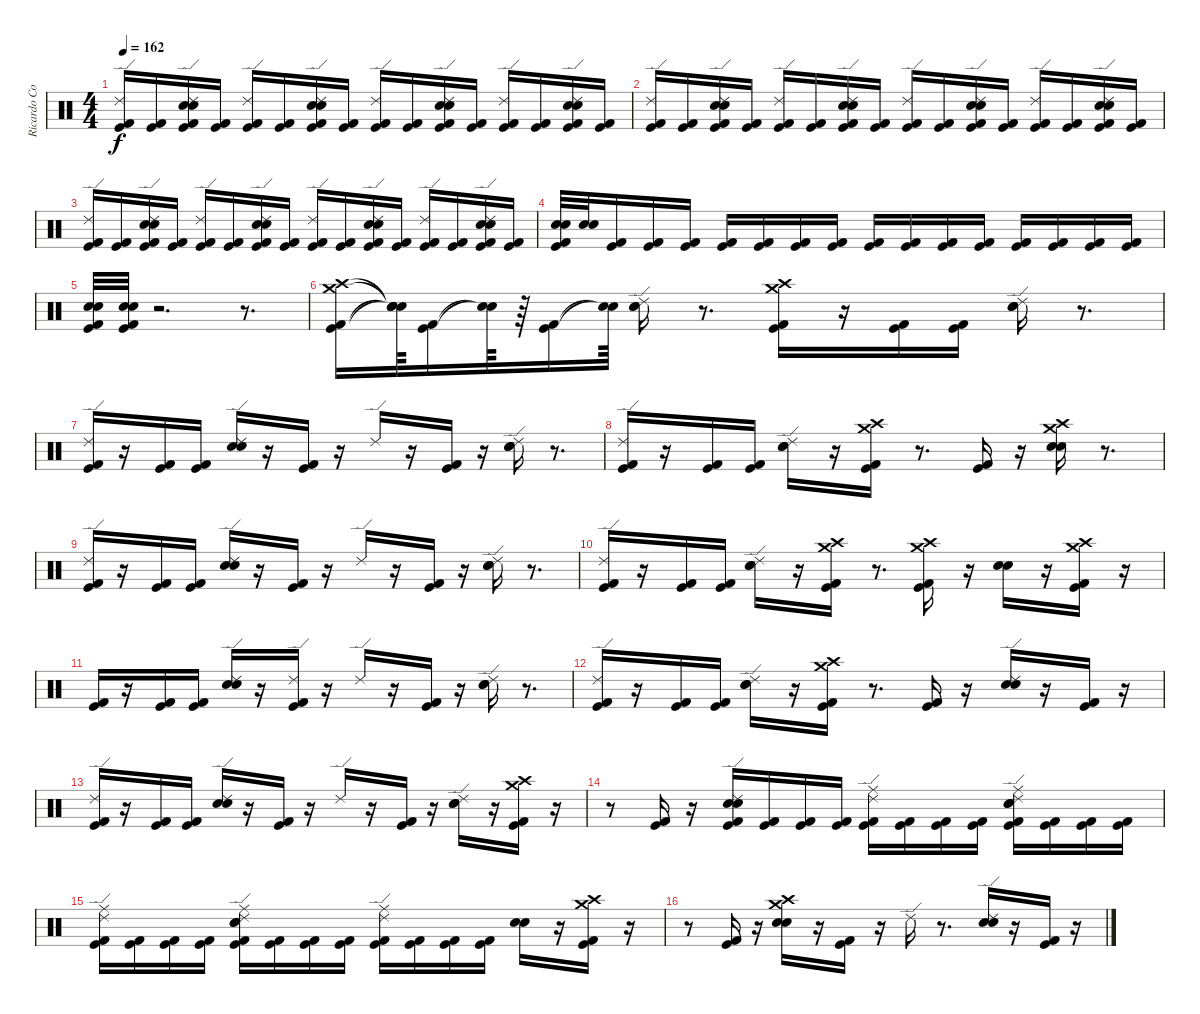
\track ("Ricardo Confessori" "Ricardo Co") {instrument percussion}
\staff {score}
\articulation defaults
\ts (4 4)
\tempo 162
\clef neutral
\ks c
("Ride (edge) 2" "Kick (hit) 2" "Kick (hit)").16{dy f} ("Kick (hit) 2" "Kick (hit)").16 ("Ride (edge) 2" "Electric Snare (hit)" "Snare (hit) 2" "Kick (hit) 2" "Kick (hit)").16 ("Kick (hit) 2" "Kick (hit)").16 ("Ride (edge) 2" "Kick (hit) 2" "Kick (hit)").16 ("Kick (hit) 2" "Kick (hit)").16 ("Ride (edge) 2" "Electric Snare (hit)" "Snare (hit) 2" "Kick (hit) 2" "Kick (hit)").16 ("Kick (hit) 2" "Kick (hit)").16 ("Ride (edge) 2" "Kick (hit) 2" "Kick (hit)").16 ("Kick (hit) 2" "Kick (hit)").16 ("Ride (edge) 2" "Electric Snare (hit)" "Snare (hit) 2" "Kick (hit) 2" "Kick (hit)").16 ("Kick (hit) 2" "Kick (hit)").16 ("Ride (edge) 2" "Kick (hit) 2" "Kick (hit)").16 ("Kick (hit) 2" "Kick (hit)").16 ("Ride (edge) 2" "Electric Snare (hit)" "Snare (hit) 2" "Kick (hit) 2" "Kick (hit)").16 ("Kick (hit) 2" "Kick (hit)").16 |
("Ride (edge) 2" "Kick (hit) 2" "Kick (hit)").16 ("Kick (hit) 2" "Kick (hit)").16 ("Ride (edge) 2" "Electric Snare (hit)" "Snare (hit) 2" "Kick (hit) 2" "Kick (hit)").16 ("Kick (hit) 2" "Kick (hit)").16 ("Ride (edge) 2" "Kick (hit) 2" "Kick (hit)").16 ("Kick (hit) 2" "Kick (hit)").16 ("Ride (edge) 2" "Electric Snare (hit)" "Snare (hit) 2" "Kick (hit) 2" "Kick (hit)").16 ("Kick (hit) 2" "Kick (hit)").16 ("Ride (edge) 2" "Kick (hit) 2" "Kick (hit)").16 ("Kick (hit) 2" "Kick (hit)").16 ("Ride (edge) 2" "Electric Snare (hit)" "Snare (hit) 2" "Kick (hit) 2" "Kick (hit)").16 ("Kick (hit) 2" "Kick (hit)").16 ("Ride (edge) 2" "Kick (hit) 2" "Kick (hit)").16 ("Kick (hit) 2" "Kick (hit)").16 ("Ride (edge) 2" "Electric Snare (hit)" "Snare (hit) 2" "Kick (hit) 2" "Kick (hit)").16 ("Kick (hit) 2" "Kick (hit)").16 |
("Ride (edge) 2" "Kick (hit) 2" "Kick (hit)").16 ("Kick (hit) 2" "Kick (hit)").16 ("Ride (edge) 2" "Electric Snare (hit)" "Snare (hit) 2" "Kick (hit) 2" "Kick (hit)").16 ("Kick (hit) 2" "Kick (hit)").16 ("Ride (edge) 2" "Kick (hit) 2" "Kick (hit)").16 ("Kick (hit) 2" "Kick (hit)").16 ("Ride (edge) 2" "Electric Snare (hit)" "Snare (hit) 2" "Kick (hit) 2" "Kick (hit)").16 ("Kick (hit) 2" "Kick (hit)").16 ("Ride (edge) 2" "Kick (hit) 2" "Kick (hit)").16 ("Kick (hit) 2" "Kick (hit)").16 ("Ride (edge) 2" "Electric Snare (hit)" "Snare (hit) 2" "Kick (hit) 2" "Kick (hit)").16 ("Kick (hit) 2" "Kick (hit)").16 ("Ride (edge) 2" "Kick (hit) 2" "Kick (hit)").16 ("Kick (hit) 2" "Kick (hit)").16 ("Ride (edge) 2" "Electric Snare (hit)" "Snare (hit) 2" "Kick (hit) 2" "Kick (hit)").16 ("Kick (hit) 2" "Kick (hit)").16 |
("Electric Snare (hit)" "Snare (hit) 2" "Kick (hit) 2" "Kick (hit)").32 ("Electric Snare (hit)" "Snare (hit) 2").32 ("Kick (hit) 2" "Kick (hit)").16 ("Kick (hit) 2" "Kick (hit)").16 ("Kick (hit) 2" "Kick (hit)").16 ("Kick (hit) 2" "Kick (hit)").16 ("Kick (hit) 2" "Kick (hit)").16 ("Kick (hit) 2" "Kick (hit)").16 ("Kick (hit) 2" "Kick (hit)").16 ("Kick (hit) 2" "Kick (hit)").16 ("Kick (hit) 2" "Kick (hit)").16 ("Kick (hit) 2" "Kick (hit)").16 ("Kick (hit) 2" "Kick (hit)").16 ("Kick (hit) 2" "Kick (hit)").16 ("Kick (hit) 2" "Kick (hit)").16 ("Kick (hit) 2" "Kick (hit)").16 ("Kick (hit) 2" "Kick (hit)").16 |
("Electric Snare (hit)" "Kick (hit) 2" "Kick (hit)" "Snare (hit) 2").32 ("Electric Snare (hit)" "Kick (hit) 2" "Kick (hit)" "Snare (hit) 2").32 r.2{d} r.8{d} |
("Crash high (hit)" "Crash medium (hit)" "Kick (hit) 2" "Kick (hit)").16 ("Snare (hit)"{t} "Snare (hit)"{t} "Snare (hit)"{t} "Snare (hit)"{t}).64 ("Kick (hit) 2" "Kick (hit)").16 ("Snare (hit)"{t} "Snare (hit)"{t}).64 r.64 ("Kick (hit) 2" "Kick (hit)").16 ("Snare (hit)"{t} "Snare (hit)"{t}).64 ("Ride (edge) 2" "Electric Snare (hit)" "Snare (hit) 2").16 r.8{d} ("Crash high (hit)" "Crash medium (hit)" "Kick (hit) 2" "Kick (hit)").16 r.16 ("Kick (hit)" "Kick (hit) 2").16 ("Kick (hit) 2" "Kick (hit)").16 ("Ride (edge) 2" "Electric Snare (hit)" "Snare (hit) 2").16 r.8{d} |
("Ride (edge) 2" "Kick (hit) 2" "Kick (hit)").16 r.16 ("Kick (hit) 2" "Kick (hit)").16 ("Kick (hit) 2" "Kick (hit)").16 ("Ride (edge) 2" "Electric Snare (hit)" "Snare (hit) 2").16 r.16 ("Kick (hit) 2" "Kick (hit)").16 r.16 "Ride (edge) 2".16 r.16 ("Kick (hit)" "Kick (hit) 2").16 r.16 ("Ride (edge) 2" "Electric Snare (hit)" "Snare (hit) 2").16 r.8{d} |
("Ride (edge) 2" "Kick (hit) 2" "Kick (hit)").16 r.16 ("Kick (hit) 2" "Kick (hit)").16 ("Kick (hit) 2" "Kick (hit)").16 ("Ride (edge) 2" "Electric Snare (hit)" "Snare (hit) 2").16 r.16 ("Crash high (hit)" "Kick (hit) 2" "Kick (hit)" "Crash medium (hit)").16 r.8{d} ("Kick (hit) 2" "Kick (hit)").16 r.16 ("Crash high (hit)" "Crash medium (hit)" "Electric Snare (hit)" "Snare (hit) 2").16 r.8{d} |
("Ride (edge) 2" "Kick (hit) 2" "Kick (hit)").16 r.16 ("Kick (hit) 2" "Kick (hit)").16 ("Kick (hit) 2" "Kick (hit)").16 ("Ride (edge) 2" "Electric Snare (hit)" "Snare (hit) 2").16 r.16 ("Kick (hit) 2" "Kick (hit)").16 r.16 "Ride (edge) 2".16 r.16 ("Kick (hit) 2" "Kick (hit)").16 r.16 ("Ride (edge) 2" "Electric Snare (hit)" "Snare (hit) 2").16 r.8{d} |
("Ride (edge) 2" "Kick (hit) 2" "Kick (hit)").16 r.16 ("Kick (hit) 2" "Kick (hit)").16 ("Kick (hit) 2" "Kick (hit)").16 ("Ride (edge) 2" "Electric Snare (hit)" "Snare (hit) 2").16 r.16 ("Crash high (hit)" "Crash medium (hit)" "Kick (hit) 2" "Kick (hit)").16 r.8{d} ("Crash high (hit)" "Crash medium (hit)" "Kick (hit) 2" "Kick (hit)").16 r.16 ("Electric Snare (hit)" "Snare (hit) 2").16 r.16 ("Crash high (hit)" "Crash medium (hit)" "Kick (hit) 2" "Kick (hit)").16 r.16 |
("Kick (hit) 2" "Kick (hit)").16 r.16 ("Kick (hit) 2" "Kick (hit)").16 ("Kick (hit) 2" "Kick (hit)").16 ("Ride (edge) 2" "Electric Snare (hit)" "Snare (hit) 2").16 r.16 ("Ride (edge) 2" "Kick (hit) 2" "Kick (hit)").16 r.16 "Ride (edge) 2".16 r.16 ("Kick (hit) 2" "Kick (hit)").16 r.16 ("Ride (edge) 2" "Electric Snare (hit)" "Snare (hit) 2").16 r.8{d} |
("Ride (edge) 2" "Kick (hit) 2" "Kick (hit)").16 r.16 ("Kick (hit) 2" "Kick (hit)").16 ("Kick (hit) 2" "Kick (hit)").16 ("Ride (edge) 2" "Electric Snare (hit)" "Snare (hit) 2").16 r.16 ("Crash high (hit)" "Crash medium (hit)" "Kick (hit) 2" "Kick (hit)").16 r.8{d} ("Kick (hit) 2" "Kick (hit)").16 r.16 ("Ride (edge) 2" "Electric Snare (hit)" "Snare (hit) 2").16 r.16 ("Kick (hit) 2" "Kick (hit)").16 r.16 |
("Ride (edge) 2" "Kick (hit) 2" "Kick (hit)").16 r.16 ("Kick (hit) 2" "Kick (hit)").16 ("Kick (hit) 2" "Kick (hit)").16 ("Ride (edge) 2" "Electric Snare (hit)" "Snare (hit) 2").16 r.16 ("Kick (hit) 2" "Kick (hit)").16 r.16 "Ride (edge) 2".16 r.16 ("Kick (hit) 2" "Kick (hit)").16 r.16 ("Ride (edge) 2" "Electric Snare (hit)" "Snare (hit) 2").16 r.16 ("Kick (hit) 2" "Kick (hit)" "Crash high (hit)" "Crash medium (hit)").16 r.16 |
r.8 ("Kick (hit) 2" "Kick (hit)").16 r.16 ("Ride (edge) 2" "Kick (hit) 2" "Kick (hit)" "Electric Snare (hit)" "Snare (hit) 2").16 ("Kick (hit) 2" "Kick (hit)").16 ("Kick (hit)" "Kick (hit) 2").16 ("Kick (hit) 2" "Kick (hit)").16 ("Ride (middle)" "Ride (edge) 2" "Kick (hit) 2" "Kick (hit)").16 ("Kick (hit) 2" "Kick (hit)").16 ("Kick (hit) 2" "Kick (hit)").16 ("Kick (hit) 2" "Kick (hit)").16 ("Ride (middle)" "Electric Snare (hit)" "Snare (hit) 2" "Ride (edge) 2" "Kick (hit) 2" "Kick (hit)").16 ("Kick (hit) 2" "Kick (hit)").16 ("Kick (hit) 2" "Kick (hit)").16 ("Kick (hit) 2" "Kick (hit)").16 |
("Ride (middle)" "Ride (edge) 2" "Kick (hit) 2" "Kick (hit)").16 ("Kick (hit) 2" "Kick (hit)").16 ("Kick (hit) 2" "Kick (hit)").16 ("Kick (hit) 2" "Kick (hit)").16 ("Ride (middle)" "Electric Snare (hit)" "Snare (hit) 2" "Ride (edge) 2" "Kick (hit) 2" "Kick (hit)").16 ("Kick (hit) 2" "Kick (hit)").16 ("Kick (hit) 2" "Kick (hit)").16 ("Kick (hit) 2" "Kick (hit)").16 ("Ride (middle)" "Ride (edge) 2" "Kick (hit) 2" "Kick (hit)").16 ("Kick (hit) 2" "Kick (hit)").16 ("Kick (hit) 2" "Kick (hit)").16 ("Kick (hit) 2" "Kick (hit)").16 ("Electric Snare (hit)" "Snare (hit) 2").16 r.16 ("Crash high (hit)" "Crash medium (hit)" "Kick (hit) 2" "Kick (hit)").16 r.16 |
r.8 ("Kick (hit) 2" "Kick (hit)").16 r.16 ("Crash high (hit)" "Crash medium (hit)" "Snare (hit) 2" "Electric Snare (hit)").16 r.16 ("Kick (hit) 2" "Kick (hit)").16 r.16 "Ride (edge) 2".16 r.8{d} ("Ride (edge) 2" "Electric Snare (hit)" "Snare (hit) 2").16 r.16 ("Kick (hit) 2" "Kick (hit)").16 r.16
